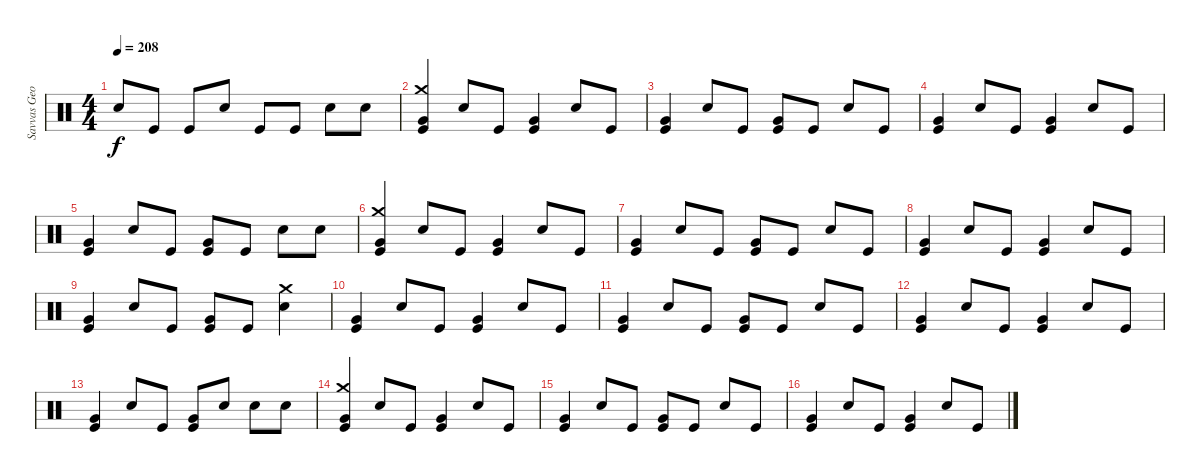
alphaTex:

\track ("Savvas Georgiadis" "Savvas Geo") {instrument percussion}
\staff {score}
\articulation defaults
\ts (4 4)
\tempo 208
\clef neutral
\ks c "Snare (hit) 2".8{dy f} "Kick (hit)".8 "Kick (hit)".8 "Snare (hit) 2".8 "Kick (hit)".8 "Kick (hit)".8 "Snare (hit) 2".8 "Snare (hit) 2".8
|
("Crash medium (hit)" "Very Low Tom (hit)" "Kick (hit)").4 "Snare (hit) 2".8 "Kick (hit)".8 ("Very Low Tom (hit)" "Kick (hit)").4 "Snare (hit) 2".8 "Kick (hit)".8 |
("Very Low Tom (hit)" "Kick (hit)").4 "Snare (hit) 2".8 "Kick (hit)".8 ("Very Low Tom (hit)" "Kick (hit)").8 "Kick (hit)".8 "Snare (hit) 2".8 "Kick (hit)".8 |
("Very Low Tom (hit)" "Kick (hit)").4 "Snare (hit) 2".8 "Kick (hit)".8 ("Very Low Tom (hit)" "Kick (hit)").4 "Snare (hit) 2".8 "Kick (hit)".8 |
("Very Low Tom (hit)" "Kick (hit)").4 "Snare (hit) 2".8 "Kick (hit)".8 ("Very Low Tom (hit)" "Kick (hit)").8 "Kick (hit)".8 "Snare (hit) 2".8 "Snare (hit) 2".8 |
("Crash medium (hit)" "Very Low Tom (hit)" "Kick (hit)").4 "Snare (hit) 2".8 "Kick (hit)".8 ("Very Low Tom (hit)" "Kick (hit)").4 "Snare (hit) 2".8 "Kick (hit)".8 |
("Very Low Tom (hit)" "Kick (hit)").4 "Snare (hit) 2".8 "Kick (hit)".8 ("Very Low Tom (hit)" "Kick (hit)").8 "Kick (hit)".8 "Snare (hit) 2".8 "Kick (hit)".8 |
("Very Low Tom (hit)" "Kick (hit)").4 "Snare (hit) 2".8 "Kick (hit)".8 ("Very Low Tom (hit)" "Kick (hit)").4 "Snare (hit) 2".8 "Kick (hit)".8 |
("Very Low Tom (hit)" "Kick (hit)").4 "Snare (hit) 2".8 "Kick (hit)".8 ("Very Low Tom (hit)" "Kick (hit)").8 "Kick (hit)".8 ("Crash medium (hit)" "Snare (hit) 2").4 |
("Very Low Tom (hit)" "Kick (hit)").4 "Snare (hit) 2".8 "Kick (hit)".8 ("Very Low Tom (hit)" "Kick (hit)").4 "Snare (hit) 2".8 "Kick (hit)".8 |
("Very Low Tom (hit)" "Kick (hit)").4 "Snare (hit) 2".8 "Kick (hit)".8 ("Very Low Tom (hit)" "Kick (hit)").8 "Kick (hit)".8 "Snare (hit) 2".8 "Kick (hit)".8 |
("Very Low Tom (hit)" "Kick (hit)").4 "Snare (hit) 2".8 "Kick (hit)".8 ("Very Low Tom (hit)" "Kick (hit)").4 "Snare (hit) 2".8 "Kick (hit)".8 |
("Very Low Tom (hit)" "Kick (hit)").4 "Snare (hit) 2".8 "Kick (hit)".8 ("Very Low Tom (hit)" "Kick (hit)").8 "Snare (hit) 2".8 "Snare (hit) 2".8 "Snare (hit) 2".8 |
("Crash medium (hit)" "Very Low Tom (hit)" "Kick (hit)").4 "Snare (hit) 2".8 "Kick (hit)".8 ("Very Low Tom (hit)" "Kick (hit)").4 "Snare (hit) 2".8 "Kick (hit)".8 |
("Very Low Tom (hit)" "Kick (hit)").4 "Snare (hit) 2".8 "Kick (hit)".8 ("Very Low Tom (hit)" "Kick (hit)").8 "Kick (hit)".8 "Snare (hit) 2".8 "Kick (hit)".8 |
("Very Low Tom (hit)" "Kick (hit)").4 "Snare (hit) 2".8 "Kick (hit)".8 ("Very Low Tom (hit)" "Kick (hit)").4 "Snare (hit) 2".8 "Kick (hit)".8
